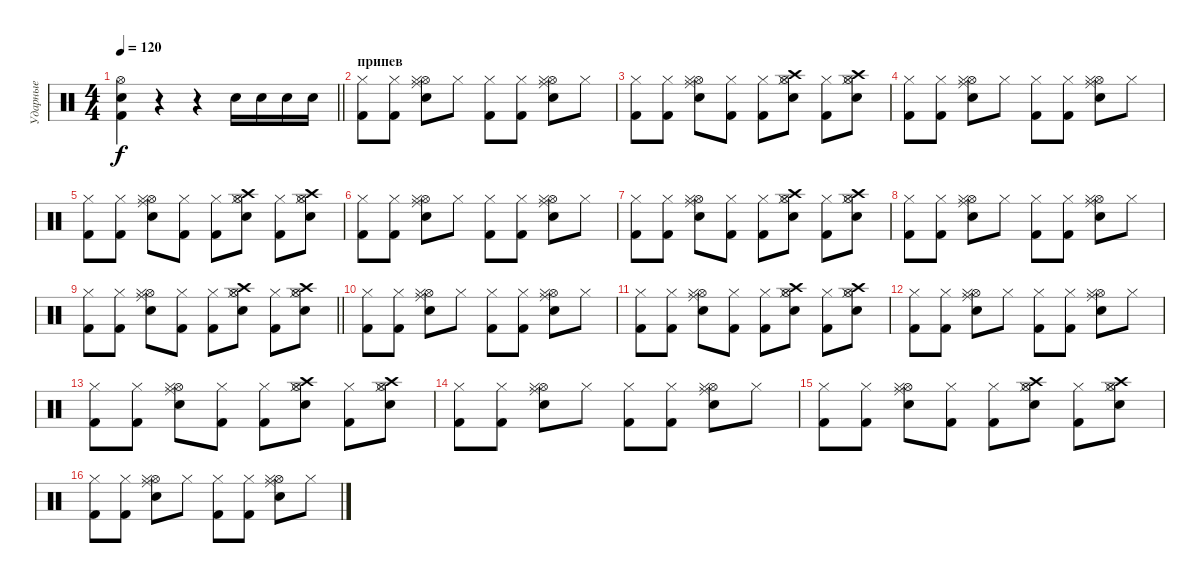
\track ("Ударные" "Ударные") {instrument percussion}
\staff {score}
\articulation defaults
\ts (4 4)
\tempo 120
\clef neutral
\barLineRight lightlight
\ks c
("Hi-Hat (open)" "Kick (hit) 2" "Snare (hit) 2").4{dy f} r.4 r.4 "Snare (hit) 2".16 "Snare (hit) 2".16 "Snare (hit) 2".16 "Snare (hit) 2".16 |
\section ("" "припев")
("Kick (hit) 2" "Hi-Hat (closed)").8 ("Kick (hit) 2" "Hi-Hat (closed)").8 ("Ride (middle)" "Hi-Hat (open)" "Hi-Hat (closed)" "Snare (hit) 2").8 "Hi-Hat (closed)".8 ("Kick (hit) 2" "Hi-Hat (closed)").8 ("Kick (hit) 2" "Hi-Hat (closed)").8 ("Ride (middle)" "Hi-Hat (open)" "Hi-Hat (closed)" "Snare (hit) 2").8 "Hi-Hat (closed)".8 |
("Kick (hit) 2" "Hi-Hat (closed)").8 ("Kick (hit) 2" "Hi-Hat (closed)").8 ("Ride (middle)" "Hi-Hat (open)" "Hi-Hat (closed)" "Snare (hit) 2").8 ("Kick (hit) 2" "Hi-Hat (closed)").8 ("Kick (hit) 2" "Hi-Hat (closed)").8 ("Crash high (hit)" "Hi-Hat (open)" "Hi-Hat (closed)" "Snare (hit) 2").8 ("Kick (hit) 2" "Hi-Hat (closed)").8 ("Crash high (hit)" "Hi-Hat (open)" "Hi-Hat (closed)" "Snare (hit) 2").8 |
("Kick (hit) 2" "Hi-Hat (closed)").8 ("Kick (hit) 2" "Hi-Hat (closed)").8 ("Ride (middle)" "Hi-Hat (open)" "Hi-Hat (closed)" "Snare (hit) 2").8 "Hi-Hat (closed)".8 ("Kick (hit) 2" "Hi-Hat (closed)").8 ("Kick (hit) 2" "Hi-Hat (closed)").8 ("Ride (middle)" "Hi-Hat (open)" "Hi-Hat (closed)" "Snare (hit) 2").8 "Hi-Hat (closed)".8 |
("Kick (hit) 2" "Hi-Hat (closed)").8 ("Kick (hit) 2" "Hi-Hat (closed)").8 ("Ride (middle)" "Hi-Hat (open)" "Hi-Hat (closed)" "Snare (hit) 2").8 ("Kick (hit) 2" "Hi-Hat (closed)").8 ("Kick (hit) 2" "Hi-Hat (closed)").8 ("Crash high (hit)" "Hi-Hat (open)" "Hi-Hat (closed)" "Snare (hit) 2").8 ("Kick (hit) 2" "Hi-Hat (closed)").8 ("Crash high (hit)" "Hi-Hat (open)" "Hi-Hat (closed)" "Snare (hit) 2").8 |
("Kick (hit) 2" "Hi-Hat (closed)").8 ("Kick (hit) 2" "Hi-Hat (closed)").8 ("Ride (middle)" "Hi-Hat (open)" "Hi-Hat (closed)" "Snare (hit) 2").8 "Hi-Hat (closed)".8 ("Kick (hit) 2" "Hi-Hat (closed)").8 ("Kick (hit) 2" "Hi-Hat (closed)").8 ("Ride (middle)" "Hi-Hat (open)" "Hi-Hat (closed)" "Snare (hit) 2").8 "Hi-Hat (closed)".8 |
("Kick (hit) 2" "Hi-Hat (closed)").8 ("Kick (hit) 2" "Hi-Hat (closed)").8 ("Ride (middle)" "Hi-Hat (open)" "Hi-Hat (closed)" "Snare (hit) 2").8 ("Kick (hit) 2" "Hi-Hat (closed)").8 ("Kick (hit) 2" "Hi-Hat (closed)").8 ("Crash high (hit)" "Hi-Hat (open)" "Hi-Hat (closed)" "Snare (hit) 2").8 ("Kick (hit) 2" "Hi-Hat (closed)").8 ("Crash high (hit)" "Hi-Hat (open)" "Hi-Hat (closed)" "Snare (hit) 2").8 |
("Kick (hit) 2" "Hi-Hat (closed)").8 ("Kick (hit) 2" "Hi-Hat (closed)").8 ("Ride (middle)" "Hi-Hat (open)" "Hi-Hat (closed)" "Snare (hit) 2").8 "Hi-Hat (closed)".8 ("Kick (hit) 2" "Hi-Hat (closed)").8 ("Kick (hit) 2" "Hi-Hat (closed)").8 ("Ride (middle)" "Hi-Hat (open)" "Hi-Hat (closed)" "Snare (hit) 2").8 "Hi-Hat (closed)".8 |
\barLineRight lightlight
("Kick (hit) 2" "Hi-Hat (closed)").8 ("Kick (hit) 2" "Hi-Hat (closed)").8 ("Ride (middle)" "Hi-Hat (open)" "Hi-Hat (closed)" "Snare (hit) 2").8 ("Kick (hit) 2" "Hi-Hat (closed)").8 ("Kick (hit) 2" "Hi-Hat (closed)").8 ("Crash high (hit)" "Hi-Hat (open)" "Hi-Hat (closed)" "Snare (hit) 2").8 ("Kick (hit) 2" "Hi-Hat (closed)").8 ("Crash high (hit)" "Hi-Hat (open)" "Hi-Hat (closed)" "Snare (hit) 2").8 |
("Kick (hit) 2" "Hi-Hat (closed)").8 ("Kick (hit) 2" "Hi-Hat (closed)").8 ("Ride (middle)" "Hi-Hat (open)" "Hi-Hat (closed)" "Snare (hit) 2").8 "Hi-Hat (closed)".8 ("Kick (hit) 2" "Hi-Hat (closed)").8 ("Kick (hit) 2" "Hi-Hat (closed)").8 ("Ride (middle)" "Hi-Hat (open)" "Hi-Hat (closed)" "Snare (hit) 2").8 "Hi-Hat (closed)".8 |
("Kick (hit) 2" "Hi-Hat (closed)").8 ("Kick (hit) 2" "Hi-Hat (closed)").8 ("Ride (middle)" "Hi-Hat (open)" "Hi-Hat (closed)" "Snare (hit) 2").8 ("Kick (hit) 2" "Hi-Hat (closed)").8 ("Kick (hit) 2" "Hi-Hat (closed)").8 ("Crash high (hit)" "Hi-Hat (open)" "Hi-Hat (closed)" "Snare (hit) 2").8 ("Kick (hit) 2" "Hi-Hat (closed)").8 ("Crash high (hit)" "Hi-Hat (open)" "Hi-Hat (closed)" "Snare (hit) 2").8 |
("Kick (hit) 2" "Hi-Hat (closed)").8 ("Kick (hit) 2" "Hi-Hat (closed)").8 ("Ride (middle)" "Hi-Hat (open)" "Hi-Hat (closed)" "Snare (hit) 2").8 "Hi-Hat (closed)".8 ("Kick (hit) 2" "Hi-Hat (closed)").8 ("Kick (hit) 2" "Hi-Hat (closed)").8 ("Ride (middle)" "Hi-Hat (open)" "Hi-Hat (closed)" "Snare (hit) 2").8 "Hi-Hat (closed)".8 |
("Kick (hit) 2" "Hi-Hat (closed)").8 ("Kick (hit) 2" "Hi-Hat (closed)").8 ("Ride (middle)" "Hi-Hat (open)" "Hi-Hat (closed)" "Snare (hit) 2").8 ("Kick (hit) 2" "Hi-Hat (closed)").8 ("Kick (hit) 2" "Hi-Hat (closed)").8 ("Crash high (hit)" "Hi-Hat (open)" "Hi-Hat (closed)" "Snare (hit) 2").8 ("Kick (hit) 2" "Hi-Hat (closed)").8 ("Crash high (hit)" "Hi-Hat (open)" "Hi-Hat (closed)" "Snare (hit) 2").8 |
("Kick (hit) 2" "Hi-Hat (closed)").8 ("Kick (hit) 2" "Hi-Hat (closed)").8 ("Ride (middle)" "Hi-Hat (open)" "Hi-Hat (closed)" "Snare (hit) 2").8 "Hi-Hat (closed)".8 ("Kick (hit) 2" "Hi-Hat (closed)").8 ("Kick (hit) 2" "Hi-Hat (closed)").8 ("Ride (middle)" "Hi-Hat (open)" "Hi-Hat (closed)" "Snare (hit) 2").8 "Hi-Hat (closed)".8 |
("Kick (hit) 2" "Hi-Hat (closed)").8 ("Kick (hit) 2" "Hi-Hat (closed)").8 ("Ride (middle)" "Hi-Hat (open)" "Hi-Hat (closed)" "Snare (hit) 2").8 ("Kick (hit) 2" "Hi-Hat (closed)").8 ("Kick (hit) 2" "Hi-Hat (closed)").8 ("Crash high (hit)" "Hi-Hat (open)" "Hi-Hat (closed)" "Snare (hit) 2").8 ("Kick (hit) 2" "Hi-Hat (closed)").8 ("Crash high (hit)" "Hi-Hat (open)" "Hi-Hat (closed)" "Snare (hit) 2").8 |
("Kick (hit) 2" "Hi-Hat (closed)").8 ("Kick (hit) 2" "Hi-Hat (closed)").8 ("Ride (middle)" "Hi-Hat (open)" "Hi-Hat (closed)" "Snare (hit) 2").8 "Hi-Hat (closed)".8 ("Kick (hit) 2" "Hi-Hat (closed)").8 ("Kick (hit) 2" "Hi-Hat (closed)").8 ("Ride (middle)" "Hi-Hat (open)" "Hi-Hat (closed)" "Snare (hit) 2").8 "Hi-Hat (closed)".8
